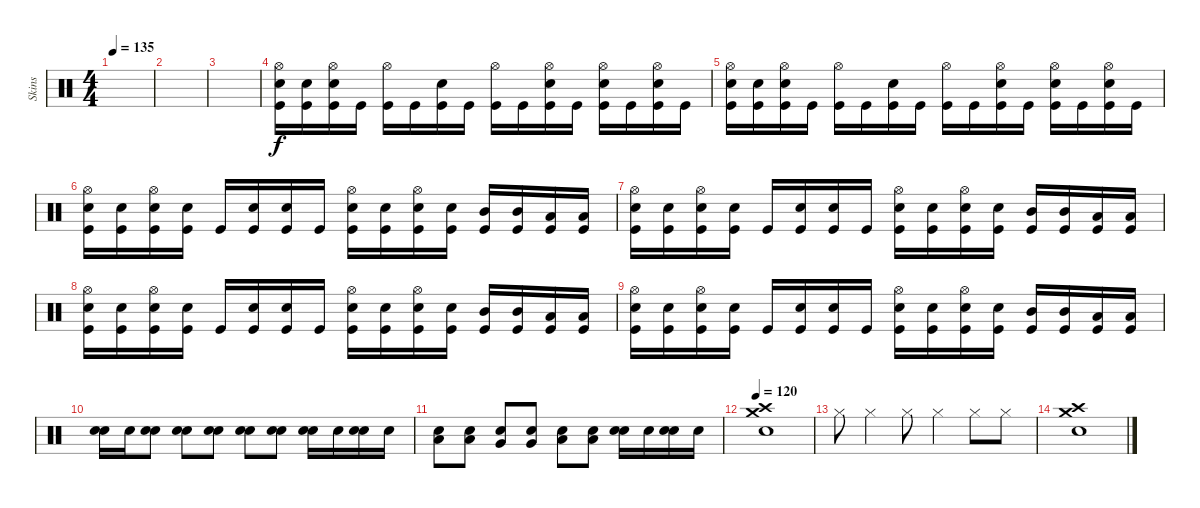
\track ("Skins" "Skins") {instrument percussion}
\staff {score}
\articulation defaults
\ts (4 4)
\tempo 135
\clef neutral
\ks c
|
|
|
("Kick (hit)" "Electric Snare (hit)" "Hi-Hat (open)").16 ("Kick (hit)" "Electric Snare (hit)").16 ("Kick (hit)" "Electric Snare (hit)" "Hi-Hat (open)").16 "Kick (hit)".16 ("Kick (hit)" "Hi-Hat (open)").16 "Kick (hit)".16 ("Kick (hit)" "Electric Snare (hit)").16 "Kick (hit)".16 ("Kick (hit)" "Hi-Hat (open)").16 "Kick (hit)".16 ("Kick (hit)" "Electric Snare (hit)" "Hi-Hat (open)").16 "Kick (hit)".16 ("Kick (hit)" "Electric Snare (hit)" "Hi-Hat (open)").16 "Kick (hit)".16 ("Kick (hit)" "Electric Snare (hit)" "Hi-Hat (open)").16 "Kick (hit)".16 |
("Kick (hit)" "Electric Snare (hit)" "Hi-Hat (open)").16 ("Kick (hit)" "Electric Snare (hit)").16 ("Kick (hit)" "Electric Snare (hit)" "Hi-Hat (open)").16 "Kick (hit)".16 ("Kick (hit)" "Hi-Hat (open)").16 "Kick (hit)".16 ("Kick (hit)" "Electric Snare (hit)").16 "Kick (hit)".16 ("Kick (hit)" "Hi-Hat (open)").16 "Kick (hit)".16 ("Kick (hit)" "Electric Snare (hit)" "Hi-Hat (open)").16 "Kick (hit)".16 ("Kick (hit)" "Electric Snare (hit)" "Hi-Hat (open)").16 "Kick (hit)".16 ("Kick (hit)" "Electric Snare (hit)" "Hi-Hat (open)").16 "Kick (hit)".16 |
("Kick (hit)" "Electric Snare (hit)" "Hi-Hat (open)").16 ("Kick (hit)" "Electric Snare (hit)").16 ("Kick (hit)" "Electric Snare (hit)" "Hi-Hat (open)").16 ("Kick (hit)" "Electric Snare (hit)").16 "Kick (hit)".16 ("Kick (hit)" "Electric Snare (hit)").16 ("Kick (hit)" "Electric Snare (hit)").16 "Kick (hit)".16 ("Kick (hit)" "Electric Snare (hit)" "Hi-Hat (open)").16 ("Kick (hit)" "Electric Snare (hit)").16 ("Kick (hit)" "Electric Snare (hit)" "Hi-Hat (open)").16 ("Kick (hit)" "Electric Snare (hit)").16 ("Kick (hit)" "Mid Tom (hit)").16 ("Kick (hit)" "Mid Tom (hit)").16 ("Kick (hit)" "Low Tom (hit)").16 ("Kick (hit)" "Low Tom (hit)").16 |
("Kick (hit)" "Electric Snare (hit)" "Hi-Hat (open)").16 ("Kick (hit)" "Electric Snare (hit)").16 ("Kick (hit)" "Electric Snare (hit)" "Hi-Hat (open)").16 ("Kick (hit)" "Electric Snare (hit)").16 "Kick (hit)".16 ("Kick (hit)" "Electric Snare (hit)").16 ("Kick (hit)" "Electric Snare (hit)").16 "Kick (hit)".16 ("Kick (hit)" "Electric Snare (hit)" "Hi-Hat (open)").16 ("Kick (hit)" "Electric Snare (hit)").16 ("Kick (hit)" "Electric Snare (hit)" "Hi-Hat (open)").16 ("Kick (hit)" "Electric Snare (hit)").16 ("Kick (hit)" "Mid Tom (hit)").16 ("Kick (hit)" "Mid Tom (hit)").16 ("Kick (hit)" "Low Tom (hit)").16 ("Kick (hit)" "Low Tom (hit)").16 |
("Kick (hit)" "Electric Snare (hit)" "Hi-Hat (open)").16 ("Kick (hit)" "Electric Snare (hit)").16 ("Kick (hit)" "Electric Snare (hit)" "Hi-Hat (open)").16 ("Kick (hit)" "Electric Snare (hit)").16 "Kick (hit)".16 ("Kick (hit)" "Electric Snare (hit)").16 ("Kick (hit)" "Electric Snare (hit)").16 "Kick (hit)".16 ("Kick (hit)" "Electric Snare (hit)" "Hi-Hat (open)").16 ("Kick (hit)" "Electric Snare (hit)").16 ("Kick (hit)" "Electric Snare (hit)" "Hi-Hat (open)").16 ("Kick (hit)" "Electric Snare (hit)").16 ("Kick (hit)" "Mid Tom (hit)").16 ("Kick (hit)" "Mid Tom (hit)").16 ("Kick (hit)" "Low Tom (hit)").16 ("Kick (hit)" "Low Tom (hit)").16 |
("Kick (hit)" "Electric Snare (hit)" "Hi-Hat (open)").16 ("Kick (hit)" "Electric Snare (hit)").16 ("Kick (hit)" "Electric Snare (hit)" "Hi-Hat (open)").16 ("Kick (hit)" "Electric Snare (hit)").16 "Kick (hit)".16 ("Kick (hit)" "Electric Snare (hit)").16 ("Kick (hit)" "Electric Snare (hit)").16 "Kick (hit)".16 ("Kick (hit)" "Electric Snare (hit)" "Hi-Hat (open)").16 ("Kick (hit)" "Electric Snare (hit)").16 ("Kick (hit)" "Electric Snare (hit)" "Hi-Hat (open)").16 ("Kick (hit)" "Electric Snare (hit)").16 ("Kick (hit)" "Mid Tom (hit)").16 ("Kick (hit)" "Mid Tom (hit)").16 ("Kick (hit)" "Low Tom (hit)").16 ("Kick (hit)" "Low Tom (hit)").16 |
("Electric Snare (hit)" "Snare (hit) 2").16 "Snare (hit) 2".16 ("Electric Snare (hit)" "Snare (hit) 2").8 ("Electric Snare (hit)" "Snare (hit) 2").8 ("Electric Snare (hit)" "Snare (hit) 2").8 ("Electric Snare (hit)" "Snare (hit) 2").8 ("Electric Snare (hit)" "Snare (hit) 2").8 ("Electric Snare (hit)" "Snare (hit) 2").16 "Snare (hit) 2".16 ("Electric Snare (hit)" "Snare (hit) 2").16 "Snare (hit) 2".16 |
("Electric Snare (hit)" "Low Tom (hit)").8 ("Electric Snare (hit)" "Low Tom (hit)").8 ("Electric Snare (hit)" "Very Low Tom (hit)").8 ("Electric Snare (hit)" "Very Low Tom (hit)").8 ("Electric Snare (hit)" "Low Floor Tom (hit)").8 ("Electric Snare (hit)" "Low Floor Tom (hit)").8 ("Electric Snare (hit)" "Snare (hit) 2").16 "Snare (hit) 2".16 ("Electric Snare (hit)" "Snare (hit) 2").16 "Snare (hit) 2".16 |
\tempo 120
("Crash high (hit)" "Crash medium (hit)" "Electric Snare (hit)").1 |
"Hi-Hat (closed)".8 "Hi-Hat (closed)".4 "Hi-Hat (closed)".8 "Hi-Hat (closed)".4 "Hi-Hat (closed)".8 "Hi-Hat (closed)".8 |
("Crash high (hit)" "Crash medium (hit)" "Electric Snare (hit)").1
